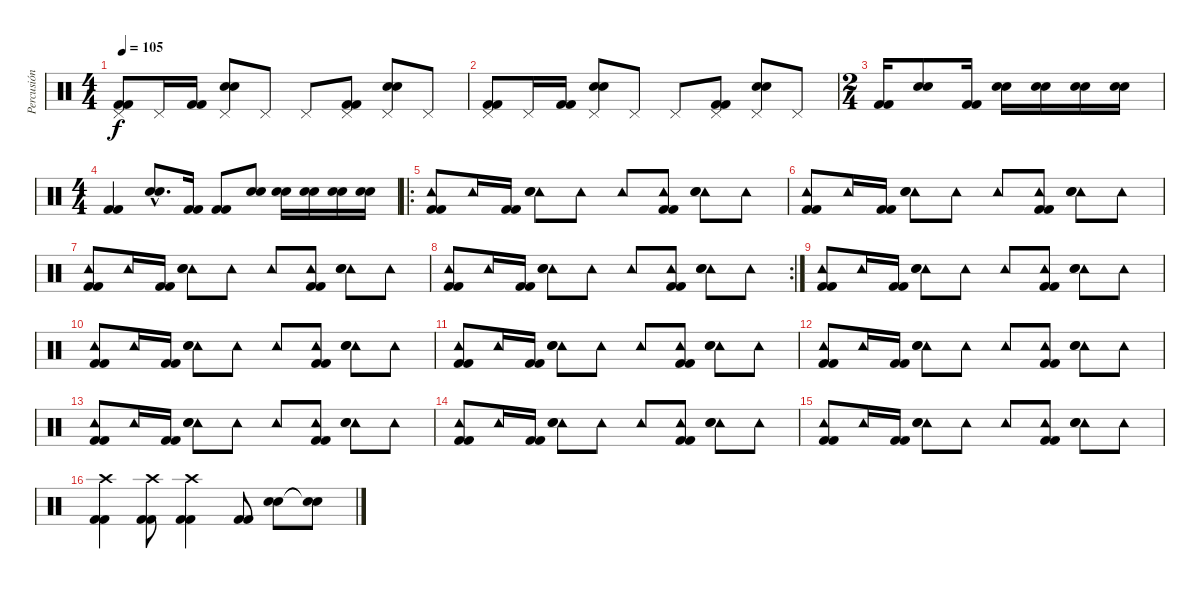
\track ("Percusión" "Percusión") {instrument percussion}
\staff {score}
\articulation defaults
\ts (4 4)
\tempo 105
\clef neutral
\ks c
("Pedal Hi-Hat (hit)" "Kick (hit) 2" "Kick (hit) 2").8{dy f} "Pedal Hi-Hat (hit)".16 ("Kick (hit) 2" "Kick (hit) 2").16 ("Pedal Hi-Hat (hit)" "Electric Snare (hit)" "Electric Snare (hit)").8 "Pedal Hi-Hat (hit)".8 "Pedal Hi-Hat (hit)".8 ("Pedal Hi-Hat (hit)" "Kick (hit) 2" "Kick (hit) 2").8 ("Pedal Hi-Hat (hit)" "Electric Snare (hit)" "Electric Snare (hit)").8 "Pedal Hi-Hat (hit)".8 |
("Pedal Hi-Hat (hit)" "Kick (hit) 2" "Kick (hit) 2").8 "Pedal Hi-Hat (hit)".16 ("Kick (hit) 2" "Kick (hit) 2").16 ("Pedal Hi-Hat (hit)" "Electric Snare (hit)" "Electric Snare (hit)").8 "Pedal Hi-Hat (hit)".8 "Pedal Hi-Hat (hit)".8 ("Pedal Hi-Hat (hit)" "Kick (hit) 2" "Kick (hit) 2").8 ("Pedal Hi-Hat (hit)" "Electric Snare (hit)" "Electric Snare (hit)").8 "Pedal Hi-Hat (hit)".8 |
\ts (2 4)
("Kick (hit) 2" "Kick (hit) 2").16 ("Electric Snare (hit)" "Electric Snare (hit)").8 ("Kick (hit) 2" "Kick (hit) 2").16 ("Electric Snare (hit)" "Electric Snare (hit)").16 ("Electric Snare (hit)" "Electric Snare (hit)").16 ("Electric Snare (hit)" "Electric Snare (hit)").16 ("Electric Snare (hit)" "Electric Snare (hit)").16 |
\ts (4 4)
("Kick (hit) 2" "Kick (hit) 2").4 ("Electric Snare (hit)"{hac} "Electric Snare (hit)"{hac}).8{d} ("Kick (hit) 2" "Kick (hit) 2").16 ("Kick (hit) 2" "Kick (hit) 2").8 ("Electric Snare (hit)" "Electric Snare (hit)").8 ("Electric Snare (hit)" "Electric Snare (hit)").16 ("Electric Snare (hit)" "Electric Snare (hit)").16 ("Electric Snare (hit)" "Electric Snare (hit)").16 ("Electric Snare (hit)" "Electric Snare (hit)").16 |
\ro
("Tambourine (hit)" "Kick (hit) 2" "Kick (hit) 2").8 "Tambourine (hit)".16 ("Kick (hit) 2" "Kick (hit) 2").16 ("Tambourine (hit)" "Electric Snare (hit)" "Electric Snare (hit)").8 "Tambourine (hit)".8 "Tambourine (hit)".8 ("Tambourine (hit)" "Kick (hit) 2" "Kick (hit) 2").8 ("Tambourine (hit)" "Electric Snare (hit)" "Electric Snare (hit)").8 "Tambourine (hit)".8 |
("Tambourine (hit)" "Kick (hit) 2" "Kick (hit) 2").8 "Tambourine (hit)".16 ("Kick (hit) 2" "Kick (hit) 2").16 ("Tambourine (hit)" "Electric Snare (hit)" "Electric Snare (hit)").8 "Tambourine (hit)".8 "Tambourine (hit)".8 ("Tambourine (hit)" "Kick (hit) 2" "Kick (hit) 2").8 ("Tambourine (hit)" "Electric Snare (hit)" "Electric Snare (hit)").8 "Tambourine (hit)".8 |
("Tambourine (hit)" "Kick (hit) 2" "Kick (hit) 2").8 "Tambourine (hit)".16 ("Kick (hit) 2" "Kick (hit) 2").16 ("Tambourine (hit)" "Electric Snare (hit)" "Electric Snare (hit)").8 "Tambourine (hit)".8 "Tambourine (hit)".8 ("Tambourine (hit)" "Kick (hit) 2" "Kick (hit) 2").8 ("Tambourine (hit)" "Electric Snare (hit)" "Electric Snare (hit)").8 "Tambourine (hit)".8 |
\rc 2
("Tambourine (hit)" "Kick (hit) 2" "Kick (hit) 2").8 "Tambourine (hit)".16 ("Kick (hit) 2" "Kick (hit) 2").16 ("Tambourine (hit)" "Electric Snare (hit)" "Electric Snare (hit)").8 "Tambourine (hit)".8 "Tambourine (hit)".8 ("Tambourine (hit)" "Kick (hit) 2" "Kick (hit) 2").8 ("Tambourine (hit)" "Electric Snare (hit)" "Electric Snare (hit)").8 "Tambourine (hit)".8 |
("Tambourine (hit)" "Kick (hit) 2" "Kick (hit) 2").8 "Tambourine (hit)".16 ("Kick (hit) 2" "Kick (hit) 2").16 ("Tambourine (hit)" "Electric Snare (hit)" "Electric Snare (hit)").8 "Tambourine (hit)".8 "Tambourine (hit)".8 ("Tambourine (hit)" "Kick (hit) 2" "Kick (hit) 2").8 ("Tambourine (hit)" "Electric Snare (hit)" "Electric Snare (hit)").8 "Tambourine (hit)".8 |
("Tambourine (hit)" "Kick (hit) 2" "Kick (hit) 2").8 "Tambourine (hit)".16 ("Kick (hit) 2" "Kick (hit) 2").16 ("Tambourine (hit)" "Electric Snare (hit)" "Electric Snare (hit)").8 "Tambourine (hit)".8 "Tambourine (hit)".8 ("Tambourine (hit)" "Kick (hit) 2" "Kick (hit) 2").8 ("Tambourine (hit)" "Electric Snare (hit)" "Electric Snare (hit)").8 "Tambourine (hit)".8 |
("Tambourine (hit)" "Kick (hit) 2" "Kick (hit) 2").8 "Tambourine (hit)".16 ("Kick (hit) 2" "Kick (hit) 2").16 ("Tambourine (hit)" "Electric Snare (hit)" "Electric Snare (hit)").8 "Tambourine (hit)".8 "Tambourine (hit)".8 ("Tambourine (hit)" "Kick (hit) 2" "Kick (hit) 2").8 ("Tambourine (hit)" "Electric Snare (hit)" "Electric Snare (hit)").8 "Tambourine (hit)".8 |
("Tambourine (hit)" "Kick (hit) 2" "Kick (hit) 2").8 "Tambourine (hit)".16 ("Kick (hit) 2" "Kick (hit) 2").16 ("Tambourine (hit)" "Electric Snare (hit)" "Electric Snare (hit)").8 "Tambourine (hit)".8 "Tambourine (hit)".8 ("Tambourine (hit)" "Kick (hit) 2" "Kick (hit) 2").8 ("Tambourine (hit)" "Electric Snare (hit)" "Electric Snare (hit)").8 "Tambourine (hit)".8 |
("Tambourine (hit)" "Kick (hit) 2" "Kick (hit) 2").8 "Tambourine (hit)".16 ("Kick (hit) 2" "Kick (hit) 2").16 ("Tambourine (hit)" "Electric Snare (hit)" "Electric Snare (hit)").8 "Tambourine (hit)".8 "Tambourine (hit)".8 ("Tambourine (hit)" "Kick (hit) 2" "Kick (hit) 2").8 ("Tambourine (hit)" "Electric Snare (hit)" "Electric Snare (hit)").8 "Tambourine (hit)".8 |
("Tambourine (hit)" "Kick (hit) 2" "Kick (hit) 2").8 "Tambourine (hit)".16 ("Kick (hit) 2" "Kick (hit) 2").16 ("Tambourine (hit)" "Electric Snare (hit)" "Electric Snare (hit)").8 "Tambourine (hit)".8 "Tambourine (hit)".8 ("Tambourine (hit)" "Kick (hit) 2" "Kick (hit) 2").8 ("Tambourine (hit)" "Electric Snare (hit)" "Electric Snare (hit)").8 "Tambourine (hit)".8 |
("Tambourine (hit)" "Kick (hit) 2" "Kick (hit) 2").8 "Tambourine (hit)".16 ("Kick (hit) 2" "Kick (hit) 2").16 ("Tambourine (hit)" "Electric Snare (hit)" "Electric Snare (hit)").8 "Tambourine (hit)".8 "Tambourine (hit)".8 ("Tambourine (hit)" "Kick (hit) 2" "Kick (hit) 2").8 ("Tambourine (hit)" "Electric Snare (hit)" "Electric Snare (hit)").8 "Tambourine (hit)".8 |
("Crash high (hit)" "Kick (hit) 2" "Kick (hit) 2").4 ("Crash high (hit)" "Kick (hit) 2" "Kick (hit) 2").8 ("Crash high (hit)" "Kick (hit) 2" "Kick (hit) 2").4 ("Kick (hit) 2" "Kick (hit) 2").8 ("Electric Snare (hit)" "Electric Snare (hit)").8 ("Snare (hit)"{t} "Snare (hit)"{t}).8
